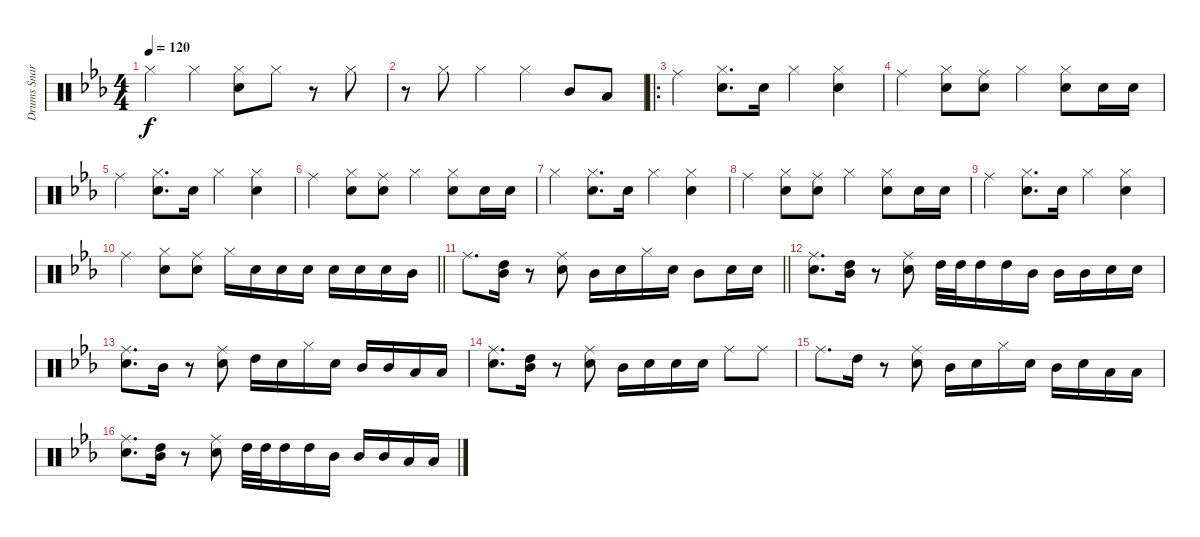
\track ("Drums Snare" "Drums Snar") {instrument percussion}
\staff {score}
\articulation defaults
\ts (4 4)
\tempo 120
\clef neutral
\ks eb "Hi-Hat (closed)".4{dy f} "Hi-Hat (closed)".4
("Hi-Hat (closed)" "Snare (hit) 2").8 "Hi-Hat (closed)".8 r.8 "Hi-Hat (closed)".8 |
r.8 "Hi-Hat (closed)".8 "Hi-Hat (closed)".4 "Hi-Hat (closed)".4 "Mid Tom (hit)".8 "Low Tom (hit)".8 |
\ro "Ride (middle)".4
("Hi-Hat (closed)" "Snare (hit) 2").8{d} "Snare (hit) 2".16 "Hi-Hat (closed)".4 ("Hi-Hat (closed)" "Snare (hit) 2").4 |
"Ride (middle)".4 ("Hi-Hat (closed)" "Snare (hit) 2").8 ("Ride (middle)" "Snare (hit) 2").8 "Hi-Hat (closed)".4 ("Hi-Hat (closed)" "Snare (hit) 2").8 "Snare (hit) 2".16 "Snare (hit) 2".16 |
"Ride (middle)".4 ("Hi-Hat (closed)" "Snare (hit) 2").8{d} "Snare (hit) 2".16 "Hi-Hat (closed)".4 ("Hi-Hat (closed)" "Snare (hit) 2").4 |
"Ride (middle)".4 ("Hi-Hat (closed)" "Snare (hit) 2").8 ("Ride (middle)" "Snare (hit) 2").8 "Hi-Hat (closed)".4 ("Hi-Hat (closed)" "Snare (hit) 2").8 "Snare (hit) 2".16 "Snare (hit) 2".16 |
"Hi-Hat (closed)".4 ("Hi-Hat (closed)" "Snare (hit) 2").8{d} "Snare (hit) 2".16 "Hi-Hat (closed)".4 ("Hi-Hat (closed)" "Snare (hit) 2").4 |
"Ride (middle)".4 ("Hi-Hat (closed)" "Snare (hit) 2").8 ("Ride (middle)" "Snare (hit) 2").8 "Hi-Hat (closed)".4 ("Hi-Hat (closed)" "Snare (hit) 2").8 "Snare (hit) 2".16 "Snare (hit) 2".16 |
"Ride (middle)".4 ("Hi-Hat (closed)" "Snare (hit) 2").8{d} "Snare (hit) 2".16 "Hi-Hat (closed)".4 ("Hi-Hat (closed)" "Snare (hit) 2").4 |
\barLineRight lightlight "Ride (middle)".4
("Hi-Hat (closed)" "Snare (hit) 2").8 ("Ride (middle)" "Snare (hit) 2").8 "Hi-Hat (closed)".16 "Snare (hit) 2".16 "Snare (hit) 2".16 "Snare (hit) 2".16 "Snare (hit) 2".16 "Snare (hit) 2".16 "Snare (hit) 2".16 "Mid Tom (hit)".16 |
\barLineRight lightlight "Ride (middle)".8{d}
("High Tom (hit)" "Mid Tom (hit)").16 r.8 ("Ride (middle)" "Snare (hit) 2").8 "Mid Tom (hit)".16 "Snare (hit) 2".16 "Hi-Hat (closed)".16 "Snare (hit) 2".16 "Mid Tom (hit)".8 "Snare (hit) 2".16 "Snare (hit) 2".16 |
("Ride (middle)" "Snare (hit) 2").8{d} ("Mid Tom (hit)" "High Tom (hit)").16 r.8 ("Ride (middle)" "Snare (hit) 2").8 "High Tom (hit)".32 "High Tom (hit)".32 "High Tom (hit)".16 "High Tom (hit)".16 "Mid Tom (hit)".16 "Mid Tom (hit)".16 "Mid Tom (hit)".16 "Snare (hit) 2".16 "Snare (hit) 2".16 |
("Ride (middle)" "Snare (hit) 2").8{d} "Mid Tom (hit)".16 r.8 ("Ride (middle)" "Snare (hit) 2").8 "High Tom (hit)".16 "Snare (hit) 2".16 "Hi-Hat (closed)".16 "Snare (hit) 2".16 "Mid Tom (hit)".16 "Mid Tom (hit)".16 "Low Tom (hit)".16 "Low Tom (hit)".16 |
("Ride (middle)" "Snare (hit) 2").8{d} ("High Tom (hit)" "Mid Tom (hit)").16 r.8 ("Ride (middle)" "Snare (hit) 2").8 "Mid Tom (hit)".16 "Snare (hit) 2".16 "Snare (hit) 2".16 "Snare (hit) 2".16 "Ride (middle)".8 "Ride (middle)".8 |
"Ride (middle)".8{d} "High Tom (hit)".16 r.8 ("Ride (middle)" "Snare (hit) 2").8 "Mid Tom (hit)".16 "Snare (hit) 2".16 "Hi-Hat (closed)".16 "Snare (hit) 2".16 "Mid Tom (hit)".16 "Snare (hit) 2".16 "Low Tom (hit)".16 "Low Tom (hit)".16 |
("Ride (middle)" "Snare (hit) 2").8{d} ("High Tom (hit)" "Mid Tom (hit)").16 r.8 ("Ride (middle)" "Snare (hit) 2").8 "High Tom (hit)".32 "High Tom (hit)".32 "High Tom (hit)".16 "High Tom (hit)".16 "Mid Tom (hit)".16 "Mid Tom (hit)".16 "Mid Tom (hit)".16 "Low Tom (hit)".16 "Low Tom (hit)".16
